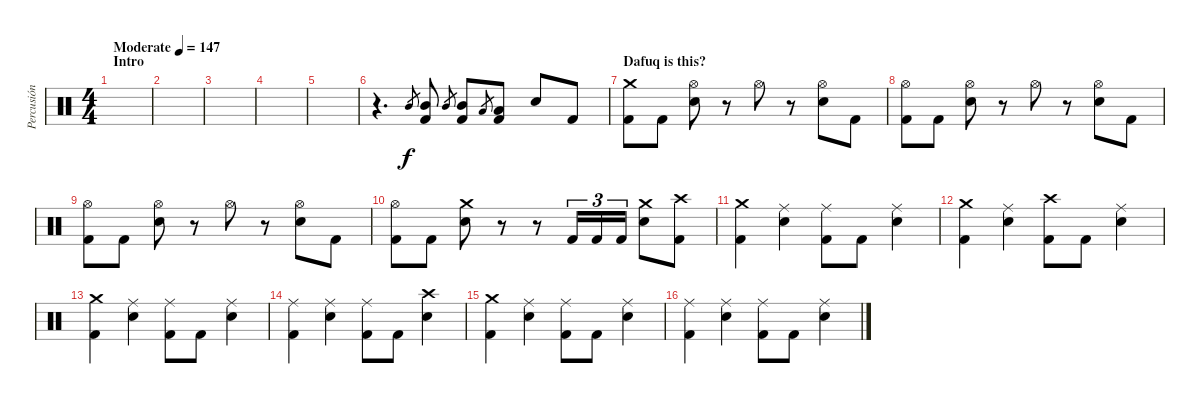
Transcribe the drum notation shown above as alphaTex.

\track ("Percusión" "Percusión") {instrument percussion}
\staff {score}
\articulation defaults
\ts (4 4)
\section ("" "Intro")
\tempo (147 "Moderate")
\clef neutral
\ks c
|
|
|
|
|
r.4{d} "Mid Tom (hit)".8{gr} ("Mid Tom (hit)" "Kick (hit) 2").8 "Mid Tom (hit)".8{gr} ("Mid Tom (hit)" "Kick (hit) 2").8 "Low Tom (hit)".8{gr} ("Low Tom (hit)" "Kick (hit) 2").8 "Snare (hit) 2".8 "Kick (hit) 2".8 |
\section ("" "Dafuq is this? ")
("Crash medium (hit)" "Kick (hit) 2").8 "Kick (hit) 2".8 ("Hi-Hat (open)" "Snare (hit) 2").8 r.8 "Hi-Hat (open)".8 r.8 ("Hi-Hat (open)" "Snare (hit) 2").8 "Kick (hit) 2".8 |
("Hi-Hat (open)" "Kick (hit) 2").8 "Kick (hit) 2".8 ("Hi-Hat (open)" "Snare (hit) 2").8 r.8 "Hi-Hat (open)".8 r.8 ("Hi-Hat (open)" "Snare (hit) 2").8 "Kick (hit) 2".8 |
("Hi-Hat (open)" "Kick (hit) 2").8 "Kick (hit) 2".8 ("Hi-Hat (open)" "Snare (hit) 2").8 r.8 "Hi-Hat (open)".8 r.8 ("Hi-Hat (open)" "Snare (hit) 2").8 "Kick (hit) 2".8 |
("Hi-Hat (open)" "Kick (hit) 2").8 "Kick (hit) 2".8 ("Crash medium (hit)" "Snare (hit) 2").8 r.8 r.8 "Kick (hit) 2".16{tu (3 2)} "Kick (hit) 2".16{tu (3 2)} "Kick (hit) 2".16{tu (3 2)} ("Crash medium (hit)" "Snare (hit) 2").8 ("Crash high (hit)" "Kick (hit) 2").8 |
("Crash medium (hit)" "Kick (hit) 2").4 ("Ride (middle)" "Snare (hit) 2").4 ("Ride (middle)" "Kick (hit) 2").8 "Kick (hit) 2".8 ("Ride (middle)" "Snare (hit) 2").4 |
("Crash medium (hit)" "Kick (hit) 2").4 ("Ride (middle)" "Snare (hit) 2").4 ("Crash high (hit)" "Kick (hit) 2").8 "Kick (hit) 2".8 ("Ride (middle)" "Snare (hit) 2").4 |
("Crash medium (hit)" "Kick (hit) 2").4 ("Ride (middle)" "Snare (hit) 2").4 ("Ride (middle)" "Kick (hit) 2").8 "Kick (hit) 2".8 ("Ride (middle)" "Snare (hit) 2").4 |
("Ride (middle)" "Kick (hit) 2").4 ("Ride (middle)" "Snare (hit) 2").4 ("Ride (middle)" "Kick (hit) 2").8 "Kick (hit) 2".8 ("Crash high (hit)" "Snare (hit) 2").4 |
("Crash medium (hit)" "Kick (hit) 2").4 ("Ride (middle)" "Snare (hit) 2").4 ("Ride (middle)" "Kick (hit) 2").8 "Kick (hit) 2".8 ("Ride (middle)" "Snare (hit) 2").4 |
("Ride (middle)" "Kick (hit) 2").4 ("Ride (middle)" "Snare (hit) 2").4 ("Ride (middle)" "Kick (hit) 2").8 "Kick (hit) 2".8 ("Ride (middle)" "Snare (hit) 2").4
